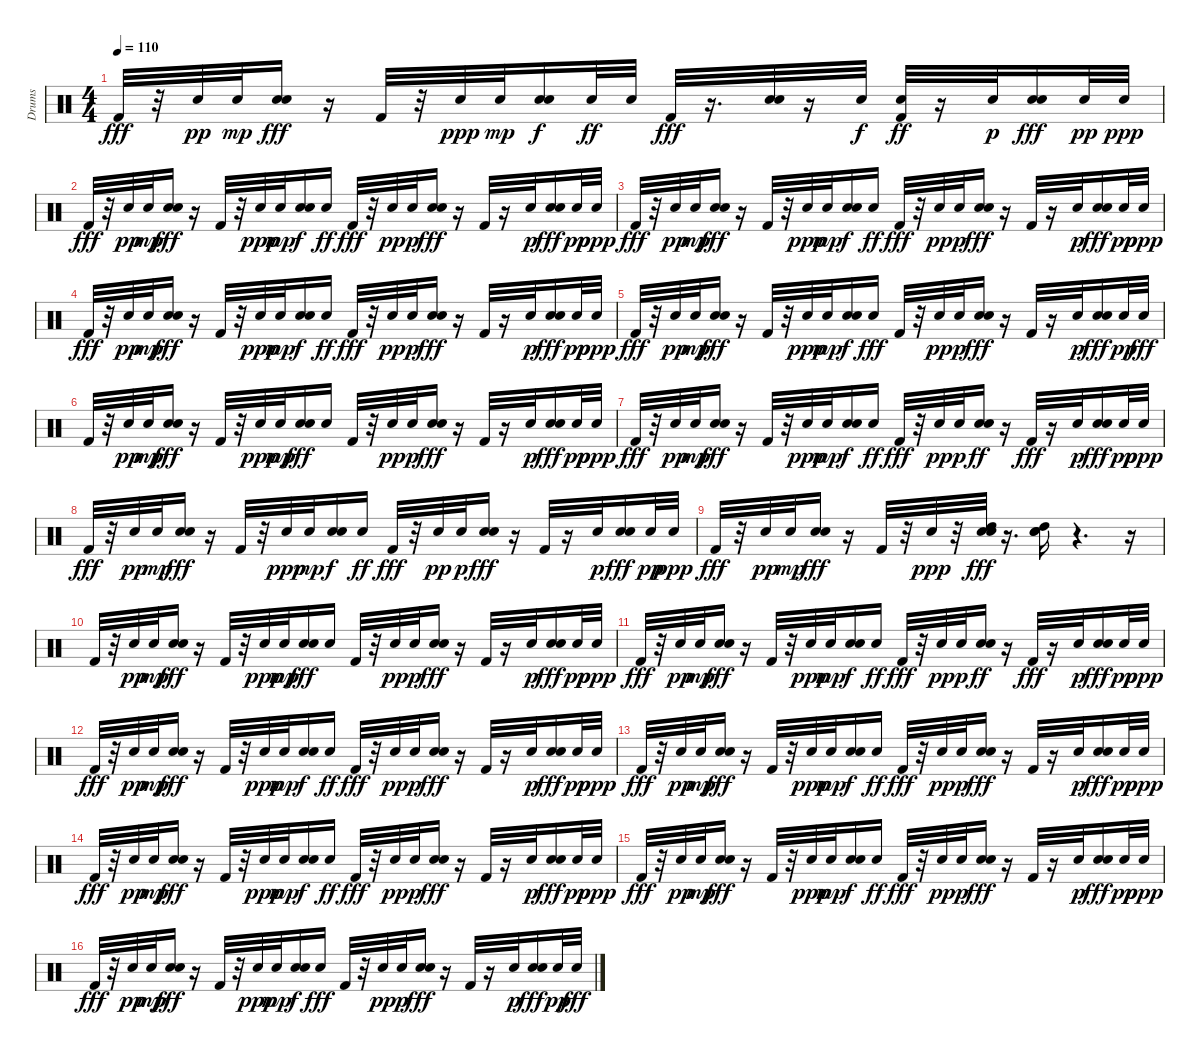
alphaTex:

\track ("Drums" "Drums") {instrument percussion}
\staff {score}
\articulation defaults
\ts (4 4)
\tempo 110
\clef neutral
\ks c "Kick (hit) 2".32{dy fff}
r.32 "Electric Snare (hit)".32{dy pp} "Electric Snare (hit)".32{dy mp} ("Snare (hit) 2" "Electric Snare (hit)").16{dy fff} r.16 "Kick (hit) 2".32 r.32 "Electric Snare (hit)".32{dy ppp} "Electric Snare (hit)".32{dy mp} ("Snare (hit) 2" "Electric Snare (hit)").16{dy f} "Electric Snare (hit)".32{dy ff} "Snare (hit) 2".32 "Kick (hit) 2".32{dy fff} r.16{d} ("Snare (hit) 2" "Electric Snare (hit)").32 r.16 "Snare (hit) 2".32{dy f} ("Kick (hit) 2" "Snare (hit) 2").32{dy ff} r.16 "Electric Snare (hit)".32{dy p} ("Snare (hit) 2" "Electric Snare (hit)").16{dy fff} "Electric Snare (hit)".32{dy pp} "Electric Snare (hit)".32{dy ppp} |
"Kick (hit) 2".32{dy fff} r.32 "Electric Snare (hit)".32{dy pp} "Electric Snare (hit)".32{dy mp} ("Snare (hit) 2" "Electric Snare (hit)").16{dy fff} r.16 "Kick (hit) 2".32 r.32 "Electric Snare (hit)".32{dy ppp} "Electric Snare (hit)".32{dy mp} ("Snare (hit) 2" "Electric Snare (hit)").16{dy f} "Electric Snare (hit)".16{dy ff} "Kick (hit) 2".32{dy fff} r.32 "Electric Snare (hit)".32{dy pp} "Electric Snare (hit)".32{dy p} ("Snare (hit) 2" "Electric Snare (hit)").16{dy fff} r.16 "Kick (hit) 2".32 r.16 "Electric Snare (hit)".32{dy p} ("Snare (hit) 2" "Electric Snare (hit)").16{dy fff} "Electric Snare (hit)".32{dy pp} "Electric Snare (hit)".32{dy ppp} |
"Kick (hit) 2".32{dy fff} r.32 "Electric Snare (hit)".32{dy pp} "Electric Snare (hit)".32{dy mp} ("Snare (hit) 2" "Electric Snare (hit)").16{dy fff} r.16 "Kick (hit) 2".32 r.32 "Electric Snare (hit)".32{dy ppp} "Electric Snare (hit)".32{dy mp} ("Snare (hit) 2" "Electric Snare (hit)").16{dy f} "Electric Snare (hit)".16{dy ff} "Kick (hit) 2".32{dy fff} r.32 "Electric Snare (hit)".32{dy pp} "Electric Snare (hit)".32{dy p} ("Snare (hit) 2" "Electric Snare (hit)").16{dy fff} r.16 "Kick (hit) 2".32 r.16 "Electric Snare (hit)".32{dy p} ("Snare (hit) 2" "Electric Snare (hit)").16{dy fff} "Electric Snare (hit)".32{dy pp} "Electric Snare (hit)".32{dy ppp} |
"Kick (hit) 2".32{dy fff} r.32 "Electric Snare (hit)".32{dy pp} "Electric Snare (hit)".32{dy mp} ("Snare (hit) 2" "Electric Snare (hit)").16{dy fff} r.16 "Kick (hit) 2".32 r.32 "Electric Snare (hit)".32{dy ppp} "Electric Snare (hit)".32{dy mp} ("Snare (hit) 2" "Electric Snare (hit)").16{dy f} "Electric Snare (hit)".16{dy ff} "Kick (hit) 2".32{dy fff} r.32 "Electric Snare (hit)".32{dy pp} "Electric Snare (hit)".32{dy p} ("Snare (hit) 2" "Electric Snare (hit)").16{dy fff} r.16 "Kick (hit) 2".32 r.16 "Electric Snare (hit)".32{dy p} ("Snare (hit) 2" "Electric Snare (hit)").16{dy fff} "Electric Snare (hit)".32{dy pp} "Electric Snare (hit)".32{dy ppp} |
"Kick (hit) 2".32{dy fff} r.32 "Electric Snare (hit)".32{dy pp} "Electric Snare (hit)".32{dy mp} ("Snare (hit) 2" "Electric Snare (hit)").16{dy fff} r.16 "Kick (hit) 2".32 r.32 "Electric Snare (hit)".32{dy ppp} "Electric Snare (hit)".32{dy mp} ("Snare (hit) 2" "Electric Snare (hit)").16{dy f} "Electric Snare (hit)".16{dy fff} "Kick (hit) 2".32 r.32 "Electric Snare (hit)".32{dy pp} "Electric Snare (hit)".32{dy p} ("Snare (hit) 2" "Electric Snare (hit)").16{dy fff} r.16 "Kick (hit) 2".32 r.16 "Electric Snare (hit)".32{dy p} ("Snare (hit) 2" "Electric Snare (hit)").16{dy fff} "Electric Snare (hit)".32{dy pp} "Electric Snare (hit)".32{dy fff} |
"Kick (hit) 2".32 r.32 "Electric Snare (hit)".32{dy pp} "Electric Snare (hit)".32{dy mp} ("Snare (hit) 2" "Electric Snare (hit)").16{dy fff} r.16 "Kick (hit) 2".32 r.32 "Electric Snare (hit)".32{dy ppp} "Electric Snare (hit)".32{dy mp} ("Snare (hit) 2" "Electric Snare (hit)").16{dy fff} "Electric Snare (hit)".16 "Kick (hit) 2".32 r.32 "Electric Snare (hit)".32{dy pp} "Electric Snare (hit)".32{dy p} ("Snare (hit) 2" "Electric Snare (hit)").16{dy fff} r.16 "Kick (hit) 2".32 r.16 "Electric Snare (hit)".32{dy p} ("Snare (hit) 2" "Electric Snare (hit)").16{dy fff} "Electric Snare (hit)".32{dy pp} "Electric Snare (hit)".32{dy ppp} |
"Kick (hit) 2".32{dy fff} r.32 "Electric Snare (hit)".32{dy pp} "Electric Snare (hit)".32{dy mp} ("Snare (hit) 2" "Electric Snare (hit)").16{dy fff} r.16 "Kick (hit) 2".32 r.32 "Electric Snare (hit)".32{dy ppp} "Electric Snare (hit)".32{dy mp} ("Snare (hit) 2" "Electric Snare (hit)").16{dy f} "Electric Snare (hit)".16{dy ff} "Kick (hit) 2".32{dy fff} r.32 "Electric Snare (hit)".32{dy pp} "Electric Snare (hit)".32{dy p} ("Snare (hit) 2" "Electric Snare (hit)").16{dy ff} r.16 "Kick (hit) 2".32{dy fff} r.16 "Electric Snare (hit)".32{dy p} ("Snare (hit) 2" "Electric Snare (hit)").16{dy fff} "Electric Snare (hit)".32{dy pp} "Electric Snare (hit)".32{dy ppp} |
"Kick (hit) 2".32{dy fff} r.32 "Electric Snare (hit)".32{dy pp} "Electric Snare (hit)".32{dy mp} ("Snare (hit) 2" "Electric Snare (hit)").16{dy fff} r.16 "Kick (hit) 2".32 r.32 "Electric Snare (hit)".32{dy ppp} "Electric Snare (hit)".32{dy mp} ("Snare (hit) 2" "Electric Snare (hit)").16{dy f} "Electric Snare (hit)".16{dy ff} "Kick (hit) 2".32{dy fff} r.32 "Electric Snare (hit)".32{dy pp} "Electric Snare (hit)".32{dy p} ("Snare (hit) 2" "Electric Snare (hit)").16{dy fff} r.16 "Kick (hit) 2".32 r.16 "Electric Snare (hit)".32{dy p} ("Snare (hit) 2" "Electric Snare (hit)").16{dy fff} "Electric Snare (hit)".32{dy pp} "Electric Snare (hit)".32{dy ppp} |
"Kick (hit) 2".32{dy fff} r.32 "Electric Snare (hit)".32{dy pp} "Electric Snare (hit)".32{dy mp} ("Snare (hit) 2" "Electric Snare (hit)").16{dy fff} r.16 "Kick (hit) 2".32 r.32 "Electric Snare (hit)".32{dy ppp} r.32 ("High Tom (hit)" "Snare (hit) 2" "Electric Snare (hit)").32{dy fff} r.16{d} ("High Tom (hit)" "Snare (hit) 2" "Electric Snare (hit)").16 r.4{d} r.16 |
"Kick (hit) 2".32 r.32 "Electric Snare (hit)".32{dy pp} "Electric Snare (hit)".32{dy mp} ("Snare (hit) 2" "Electric Snare (hit)").16{dy fff} r.16 "Kick (hit) 2".32 r.32 "Electric Snare (hit)".32{dy ppp} "Electric Snare (hit)".32{dy mp} ("Snare (hit) 2" "Electric Snare (hit)").16{dy fff} "Electric Snare (hit)".16 "Kick (hit) 2".32 r.32 "Electric Snare (hit)".32{dy pp} "Electric Snare (hit)".32{dy p} ("Snare (hit) 2" "Electric Snare (hit)").16{dy fff} r.16 "Kick (hit) 2".32 r.16 "Electric Snare (hit)".32{dy p} ("Snare (hit) 2" "Electric Snare (hit)").16{dy fff} "Electric Snare (hit)".32{dy pp} "Electric Snare (hit)".32{dy ppp} |
"Kick (hit) 2".32{dy fff} r.32 "Electric Snare (hit)".32{dy pp} "Electric Snare (hit)".32{dy mp} ("Snare (hit) 2" "Electric Snare (hit)").16{dy fff} r.16 "Kick (hit) 2".32 r.32 "Electric Snare (hit)".32{dy ppp} "Electric Snare (hit)".32{dy mp} ("Snare (hit) 2" "Electric Snare (hit)").16{dy f} "Electric Snare (hit)".16{dy ff} "Kick (hit) 2".32{dy fff} r.32 "Electric Snare (hit)".32{dy pp} "Electric Snare (hit)".32{dy p} ("Snare (hit) 2" "Electric Snare (hit)").16{dy ff} r.16 "Kick (hit) 2".32{dy fff} r.16 "Electric Snare (hit)".32{dy p} ("Snare (hit) 2" "Electric Snare (hit)").16{dy fff} "Electric Snare (hit)".32{dy pp} "Electric Snare (hit)".32{dy ppp} |
"Kick (hit) 2".32{dy fff} r.32 "Electric Snare (hit)".32{dy pp} "Electric Snare (hit)".32{dy mp} ("Snare (hit) 2" "Electric Snare (hit)").16{dy fff} r.16 "Kick (hit) 2".32 r.32 "Electric Snare (hit)".32{dy ppp} "Electric Snare (hit)".32{dy mp} ("Snare (hit) 2" "Electric Snare (hit)").16{dy f} "Electric Snare (hit)".16{dy ff} "Kick (hit) 2".32{dy fff} r.32 "Electric Snare (hit)".32{dy pp} "Electric Snare (hit)".32{dy p} ("Snare (hit) 2" "Electric Snare (hit)").16{dy fff} r.16 "Kick (hit) 2".32 r.16 "Electric Snare (hit)".32{dy p} ("Snare (hit) 2" "Electric Snare (hit)").16{dy fff} "Electric Snare (hit)".32{dy pp} "Electric Snare (hit)".32{dy ppp} |
"Kick (hit) 2".32{dy fff} r.32 "Electric Snare (hit)".32{dy pp} "Electric Snare (hit)".32{dy mp} ("Snare (hit) 2" "Electric Snare (hit)").16{dy fff} r.16 "Kick (hit) 2".32 r.32 "Electric Snare (hit)".32{dy ppp} "Electric Snare (hit)".32{dy mp} ("Snare (hit) 2" "Electric Snare (hit)").16{dy f} "Electric Snare (hit)".16{dy ff} "Kick (hit) 2".32{dy fff} r.32 "Electric Snare (hit)".32{dy pp} "Electric Snare (hit)".32{dy p} ("Snare (hit) 2" "Electric Snare (hit)").16{dy fff} r.16 "Kick (hit) 2".32 r.16 "Electric Snare (hit)".32{dy p} ("Snare (hit) 2" "Electric Snare (hit)").16{dy fff} "Electric Snare (hit)".32{dy pp} "Electric Snare (hit)".32{dy ppp} |
"Kick (hit) 2".32{dy fff} r.32 "Electric Snare (hit)".32{dy pp} "Electric Snare (hit)".32{dy mp} ("Snare (hit) 2" "Electric Snare (hit)").16{dy fff} r.16 "Kick (hit) 2".32 r.32 "Electric Snare (hit)".32{dy ppp} "Electric Snare (hit)".32{dy mp} ("Snare (hit) 2" "Electric Snare (hit)").16{dy f} "Electric Snare (hit)".16{dy ff} "Kick (hit) 2".32{dy fff} r.32 "Electric Snare (hit)".32{dy pp} "Electric Snare (hit)".32{dy p} ("Snare (hit) 2" "Electric Snare (hit)").16{dy fff} r.16 "Kick (hit) 2".32 r.16 "Electric Snare (hit)".32{dy p} ("Snare (hit) 2" "Electric Snare (hit)").16{dy fff} "Electric Snare (hit)".32{dy pp} "Electric Snare (hit)".32{dy ppp} |
"Kick (hit) 2".32{dy fff} r.32 "Electric Snare (hit)".32{dy pp} "Electric Snare (hit)".32{dy mp} ("Snare (hit) 2" "Electric Snare (hit)").16{dy fff} r.16 "Kick (hit) 2".32 r.32 "Electric Snare (hit)".32{dy ppp} "Electric Snare (hit)".32{dy mp} ("Snare (hit) 2" "Electric Snare (hit)").16{dy f} "Electric Snare (hit)".16{dy ff} "Kick (hit) 2".32{dy fff} r.32 "Electric Snare (hit)".32{dy pp} "Electric Snare (hit)".32{dy p} ("Snare (hit) 2" "Electric Snare (hit)").16{dy fff} r.16 "Kick (hit) 2".32 r.16 "Electric Snare (hit)".32{dy p} ("Snare (hit) 2" "Electric Snare (hit)").16{dy fff} "Electric Snare (hit)".32{dy pp} "Electric Snare (hit)".32{dy ppp} |
"Kick (hit) 2".32{dy fff} r.32 "Electric Snare (hit)".32{dy pp} "Electric Snare (hit)".32{dy mp} ("Snare (hit) 2" "Electric Snare (hit)").16{dy fff} r.16 "Kick (hit) 2".32 r.32 "Electric Snare (hit)".32{dy ppp} "Electric Snare (hit)".32{dy mp} ("Snare (hit) 2" "Electric Snare (hit)").16{dy f} "Electric Snare (hit)".16{dy fff} "Kick (hit) 2".32 r.32 "Electric Snare (hit)".32{dy pp} "Electric Snare (hit)".32{dy p} ("Snare (hit) 2" "Electric Snare (hit)").16{dy fff} r.16 "Kick (hit) 2".32 r.16 "Electric Snare (hit)".32{dy p} ("Snare (hit) 2" "Electric Snare (hit)").16{dy fff} "Electric Snare (hit)".32{dy pp} "Electric Snare (hit)".32{dy fff}
